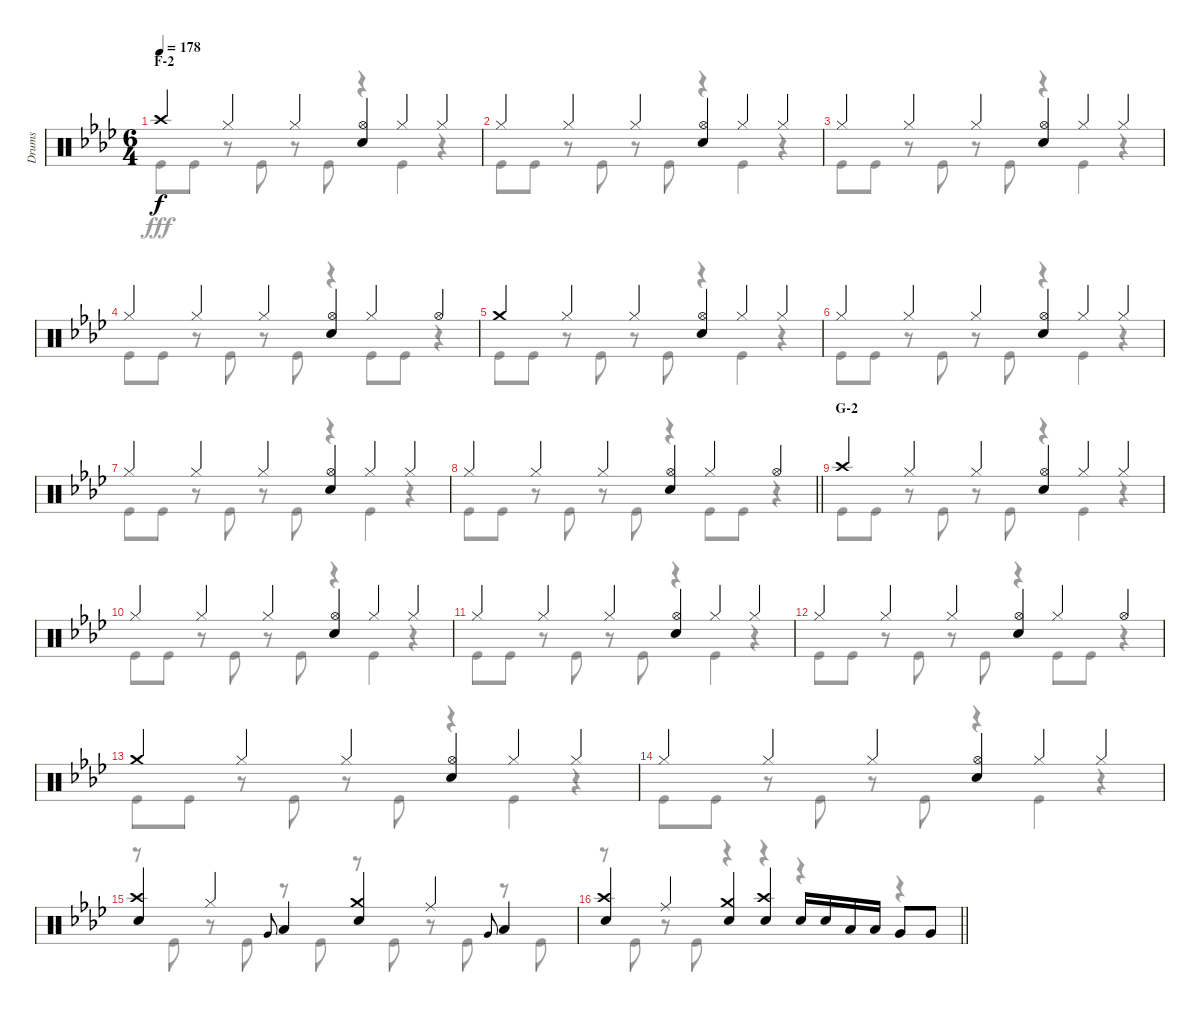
\track ("Drums" "Drums") {instrument percussion}
\staff {score}
\articulation defaults
\voice
\ts (6 4)
\section ("" "F-2")
\tempo 178
\clef neutral
\ks ab "Crash high (hit)".4{dy f} "Hi-Hat (closed)".4 "Hi-Hat (closed)".4
("Hi-Hat (open)" "Snare (hit) 2").4 "Hi-Hat (closed)".4 "Hi-Hat (closed)".4 |
"Hi-Hat (closed)".4 "Hi-Hat (closed)".4 "Hi-Hat (closed)".4 ("Hi-Hat (open)" "Snare (hit) 2").4 "Hi-Hat (closed)".4 "Hi-Hat (closed)".4 |
"Hi-Hat (closed)".4 "Hi-Hat (closed)".4 "Hi-Hat (closed)".4 ("Hi-Hat (open)" "Snare (hit) 2").4 "Hi-Hat (closed)".4 "Hi-Hat (closed)".4 |
"Hi-Hat (closed)".4 "Hi-Hat (closed)".4 "Hi-Hat (closed)".4 ("Hi-Hat (open)" "Snare (hit) 2").4 "Hi-Hat (closed)".4 "Hi-Hat (open)".4 |
"Crash medium (hit)".4 "Hi-Hat (closed)".4 "Hi-Hat (closed)".4 ("Hi-Hat (open)" "Snare (hit) 2").4 "Hi-Hat (closed)".4 "Hi-Hat (closed)".4 |
"Hi-Hat (closed)".4 "Hi-Hat (closed)".4 "Hi-Hat (closed)".4 ("Hi-Hat (open)" "Snare (hit) 2").4 "Hi-Hat (closed)".4 "Hi-Hat (closed)".4 |
"Hi-Hat (closed)".4 "Hi-Hat (closed)".4 "Hi-Hat (closed)".4 ("Hi-Hat (open)" "Snare (hit) 2").4 "Hi-Hat (closed)".4 "Hi-Hat (closed)".4 |
\barLineRight lightlight "Hi-Hat (closed)".4 "Hi-Hat (closed)".4 "Hi-Hat (closed)".4
("Hi-Hat (open)" "Snare (hit) 2").4 "Hi-Hat (closed)".4 "Hi-Hat (open)".4 |
\section ("" "G-2")
"Crash high (hit)".4 "Hi-Hat (closed)".4 "Hi-Hat (closed)".4 ("Hi-Hat (open)" "Snare (hit) 2").4 "Hi-Hat (closed)".4 "Hi-Hat (closed)".4 |
"Hi-Hat (closed)".4 "Hi-Hat (closed)".4 "Hi-Hat (closed)".4 ("Hi-Hat (open)" "Snare (hit) 2").4 "Hi-Hat (closed)".4 "Hi-Hat (closed)".4 |
"Hi-Hat (closed)".4 "Hi-Hat (closed)".4 "Hi-Hat (closed)".4 ("Hi-Hat (open)" "Snare (hit) 2").4 "Hi-Hat (closed)".4 "Hi-Hat (closed)".4 |
"Hi-Hat (closed)".4 "Hi-Hat (closed)".4 "Hi-Hat (closed)".4 ("Hi-Hat (open)" "Snare (hit) 2").4 "Hi-Hat (closed)".4 "Hi-Hat (open)".4 |
"Crash medium (hit)".4 "Hi-Hat (closed)".4 "Hi-Hat (closed)".4 ("Hi-Hat (open)" "Snare (hit) 2").4 "Hi-Hat (closed)".4 "Hi-Hat (closed)".4 |
"Hi-Hat (closed)".4 "Hi-Hat (closed)".4 "Hi-Hat (closed)".4 ("Hi-Hat (open)" "Snare (hit) 2").4 "Hi-Hat (closed)".4 "Hi-Hat (closed)".4 |
("Crash high (hit)" "Snare (hit) 2").4 "Hi-Hat (closed)".4 "Very Low Tom (hit)".8{gr onbeat} "Low Tom (hit)".4 ("Crash medium (hit)" "Snare (hit) 2").4 "Ride (middle)".4 "Very Low Tom (hit)".8{gr onbeat} "Low Tom (hit)".4 |
\barLineRight lightlight
("Crash high (hit)" "Snare (hit) 2").4 "Ride (middle)".4 ("Crash medium (hit)" "Snare (hit) 2").4 ("Crash high (hit)" "Snare (hit) 2").4 "Snare (hit) 2".16 "Snare (hit) 2".16 "Low Tom (hit)".16 "Low Tom (hit)".16 "Very Low Tom (hit)".8 "Very Low Tom (hit)".8
\voice
\clef neutral
\ottava regular
\simile none
\ks ab "Kick (hit)".8{dy fff} "Kick (hit)".8
r.8 "Kick (hit)".8 r.8 "Kick (hit)".8 r.4 "Kick (hit)".4 r.4 |
"Kick (hit)".8 "Kick (hit)".8 r.8 "Kick (hit)".8 r.8 "Kick (hit)".8 r.4 "Kick (hit)".4 r.4 |
"Kick (hit)".8 "Kick (hit)".8 r.8 "Kick (hit)".8 r.8 "Kick (hit)".8 r.4 "Kick (hit)".4 r.4 |
"Kick (hit)".8 "Kick (hit)".8 r.8 "Kick (hit)".8 r.8 "Kick (hit)".8 r.4 "Kick (hit)".8 "Kick (hit)".8 r.4 |
"Kick (hit)".8 "Kick (hit)".8 r.8 "Kick (hit)".8 r.8 "Kick (hit)".8 r.4 "Kick (hit)".4 r.4 |
"Kick (hit)".8 "Kick (hit)".8 r.8 "Kick (hit)".8 r.8 "Kick (hit)".8 r.4 "Kick (hit)".4 r.4 |
"Kick (hit)".8 "Kick (hit)".8 r.8 "Kick (hit)".8 r.8 "Kick (hit)".8 r.4 "Kick (hit)".4 r.4 |
\barLineRight lightlight "Kick (hit)".8 "Kick (hit)".8
r.8 "Kick (hit)".8 r.8 "Kick (hit)".8 r.4 "Kick (hit)".8 "Kick (hit)".8 r.4 |
"Kick (hit)".8 "Kick (hit)".8 r.8 "Kick (hit)".8 r.8 "Kick (hit)".8 r.4 "Kick (hit)".4 r.4 |
"Kick (hit)".8 "Kick (hit)".8 r.8 "Kick (hit)".8 r.8 "Kick (hit)".8 r.4 "Kick (hit)".4 r.4 |
"Kick (hit)".8 "Kick (hit)".8 r.8 "Kick (hit)".8 r.8 "Kick (hit)".8 r.4 "Kick (hit)".4 r.4 |
"Kick (hit)".8 "Kick (hit)".8 r.8 "Kick (hit)".8 r.8 "Kick (hit)".8 r.4 "Kick (hit)".8 "Kick (hit)".8 r.4 |
"Kick (hit)".8 "Kick (hit)".8 r.8 "Kick (hit)".8 r.8 "Kick (hit)".8 r.4 "Kick (hit)".4 r.4 |
"Kick (hit)".8 "Kick (hit)".8 r.8 "Kick (hit)".8 r.8 "Kick (hit)".8 r.4 "Kick (hit)".4 r.4 |
r.8 "Kick (hit)".8 r.8 "Kick (hit)".8 r.8 "Kick (hit)".8 r.8 "Kick (hit)".8 r.8 "Kick (hit)".8 r.8 "Kick (hit)".8 |
\barLineRight lightlight
r.8 "Kick (hit)".8 r.8 "Kick (hit)".8 r.4 r.4 r.4 r.4
